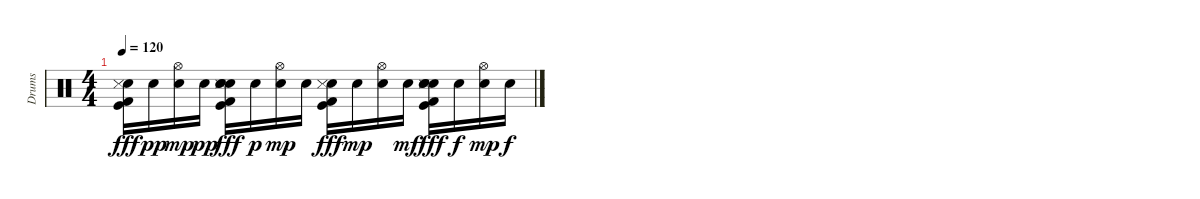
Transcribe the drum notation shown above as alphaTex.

\track ("Drums" "Drums") {instrument percussion}
\staff {score}
\articulation defaults
\ts (4 4)
\tempo 120
\clef neutral
\ks c
("Snare (hit)" "Metronome (hit)" "Kick (hit)" "Kick (hit) 2").16{dy fff} "Snare (hit)".16{dy pp} ("Snare (hit)" "Hi-Hat (open)").16{dy mp} "Snare (hit)".16{dy pp} ("Snare (hit)" "Metronome (hit)" "Kick (hit)" "Kick (hit) 2" "Snare (hit) 2" "Electric Snare (hit)").16{dy fff} "Snare (hit)".16{dy p} ("Snare (hit)" "Hi-Hat (open)").16{dy mp} "Snare (hit)".16 ("Snare (hit)" "Metronome (hit)" "Kick (hit)" "Kick (hit) 2").16{dy fff} "Snare (hit)".16{dy mp} ("Snare (hit)" "Hi-Hat (open)").16 "Snare (hit)".16{dy mf} ("Snare (hit)" "Metronome (hit)" "Kick (hit)" "Kick (hit) 2" "Snare (hit) 2" "Electric Snare (hit)").16{dy fff} "Snare (hit)".16{dy f} ("Snare (hit)" "Hi-Hat (open)").16{dy mp} "Snare (hit)".16{dy f}
